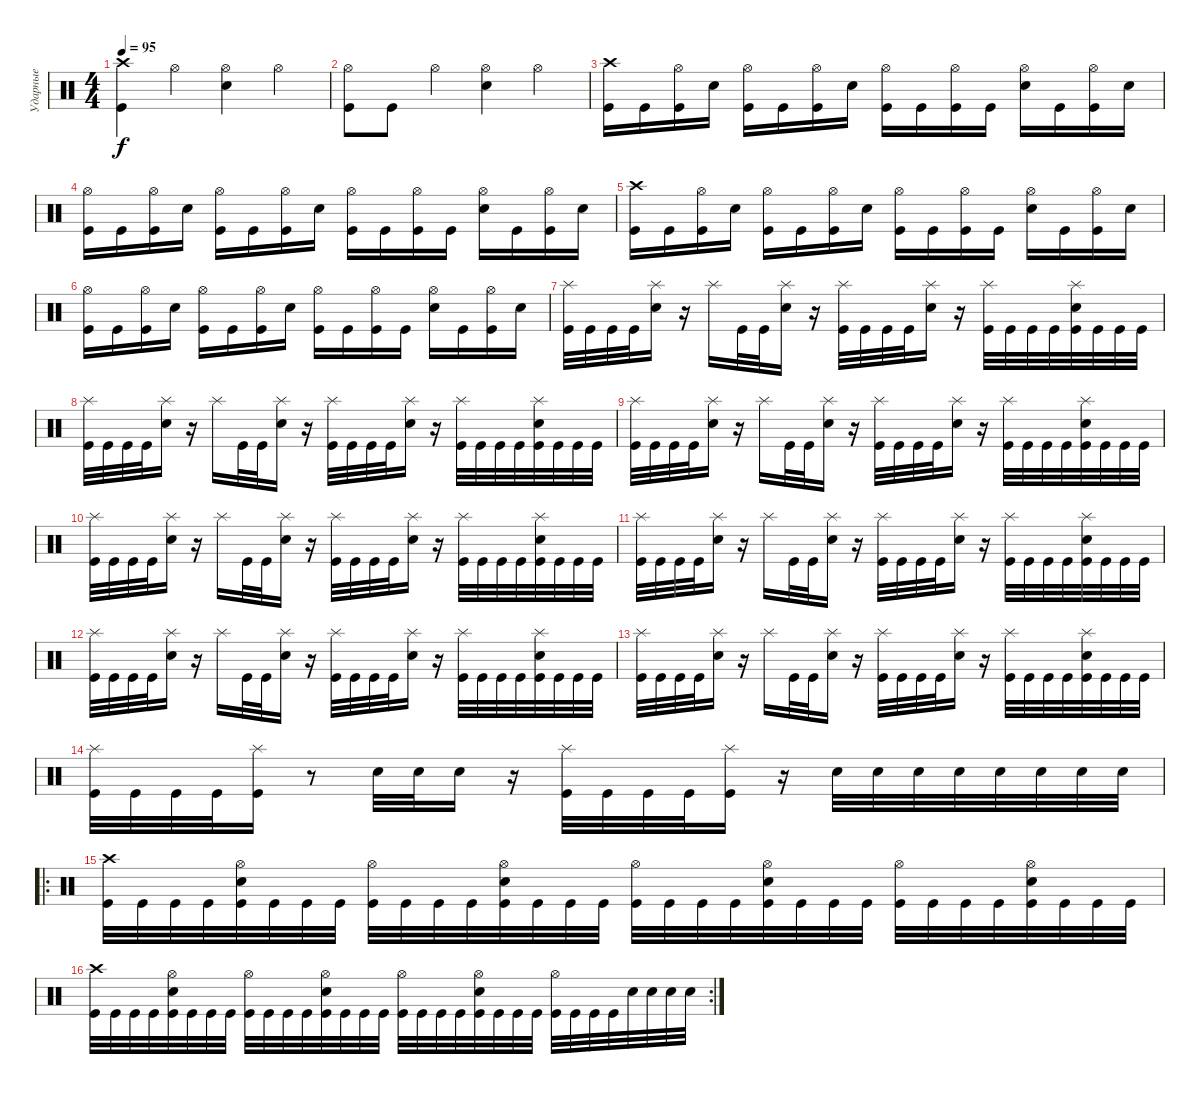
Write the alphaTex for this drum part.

\track ("Ударные" "Ударные") {instrument percussion}
\staff {score}
\articulation defaults
\ts (4 4)
\tempo 95
\clef neutral
\ks c
("Kick (hit)" "Crash high (hit)").4{dy f} "Hi-Hat (open)".4 ("Hi-Hat (open)" "Electric Snare (hit)").4 "Hi-Hat (open)".4 |
("Hi-Hat (open)" "Kick (hit)").8 "Kick (hit)".8 "Hi-Hat (open)".4 ("Hi-Hat (open)" "Electric Snare (hit)").4 "Hi-Hat (open)".4 |
("Kick (hit)" "Crash high (hit)").16 "Kick (hit)".16 ("Kick (hit)" "Hi-Hat (open)").16 "Electric Snare (hit)".16 ("Kick (hit)" "Hi-Hat (open)").16 "Kick (hit)".16 ("Kick (hit)" "Hi-Hat (open)").16 "Electric Snare (hit)".16 ("Kick (hit)" "Hi-Hat (open)").16 "Kick (hit)".16 ("Kick (hit)" "Hi-Hat (open)").16 "Kick (hit)".16 ("Electric Snare (hit)" "Hi-Hat (open)").16 "Kick (hit)".16 ("Kick (hit)" "Hi-Hat (open)").16 "Electric Snare (hit)".16 |
("Kick (hit)" "Hi-Hat (open)").16 "Kick (hit)".16 ("Kick (hit)" "Hi-Hat (open)").16 "Electric Snare (hit)".16 ("Kick (hit)" "Hi-Hat (open)").16 "Kick (hit)".16 ("Kick (hit)" "Hi-Hat (open)").16 "Electric Snare (hit)".16 ("Kick (hit)" "Hi-Hat (open)").16 "Kick (hit)".16 ("Kick (hit)" "Hi-Hat (open)").16 "Kick (hit)".16 ("Electric Snare (hit)" "Hi-Hat (open)").16 "Kick (hit)".16 ("Kick (hit)" "Hi-Hat (open)").16 "Electric Snare (hit)".16 |
("Kick (hit)" "Crash high (hit)").16 "Kick (hit)".16 ("Kick (hit)" "Hi-Hat (open)").16 "Electric Snare (hit)".16 ("Kick (hit)" "Hi-Hat (open)").16 "Kick (hit)".16 ("Kick (hit)" "Hi-Hat (open)").16 "Electric Snare (hit)".16 ("Kick (hit)" "Hi-Hat (open)").16 "Kick (hit)".16 ("Kick (hit)" "Hi-Hat (open)").16 "Kick (hit)".16 ("Electric Snare (hit)" "Hi-Hat (open)").16 "Kick (hit)".16 ("Kick (hit)" "Hi-Hat (open)").16 "Electric Snare (hit)".16 |
("Kick (hit)" "Hi-Hat (open)").16 "Kick (hit)".16 ("Kick (hit)" "Hi-Hat (open)").16 "Electric Snare (hit)".16 ("Kick (hit)" "Hi-Hat (open)").16 "Kick (hit)".16 ("Kick (hit)" "Hi-Hat (open)").16 "Electric Snare (hit)".16 ("Kick (hit)" "Hi-Hat (open)").16 "Kick (hit)".16 ("Kick (hit)" "Hi-Hat (open)").16 "Kick (hit)".16 ("Electric Snare (hit)" "Hi-Hat (open)").16 "Kick (hit)".16 ("Kick (hit)" "Hi-Hat (open)").16 "Electric Snare (hit)".16 |
("Kick (hit)" "Splash (hit)").32 "Kick (hit)".32 "Kick (hit)".32 "Kick (hit)".32 ("Electric Snare (hit)" "Splash (hit)").16 r.16 "Splash (hit)".16 "Kick (hit)".32 "Kick (hit)".32 ("Electric Snare (hit)" "Splash (hit)").16 r.16 ("Kick (hit)" "Splash (hit)").32 "Kick (hit)".32 "Kick (hit)".32 "Kick (hit)".32 ("Electric Snare (hit)" "Splash (hit)").16 r.16 ("Kick (hit)" "Splash (hit)").32 "Kick (hit)".32 "Kick (hit)".32 "Kick (hit)".32 ("Kick (hit)" "Electric Snare (hit)" "Splash (hit)").32 "Kick (hit)".32 "Kick (hit)".32 "Kick (hit)".32 |
("Kick (hit)" "Splash (hit)").32 "Kick (hit)".32 "Kick (hit)".32 "Kick (hit)".32 ("Electric Snare (hit)" "Splash (hit)").16 r.16 "Splash (hit)".16 "Kick (hit)".32 "Kick (hit)".32 ("Electric Snare (hit)" "Splash (hit)").16 r.16 ("Kick (hit)" "Splash (hit)").32 "Kick (hit)".32 "Kick (hit)".32 "Kick (hit)".32 ("Electric Snare (hit)" "Splash (hit)").16 r.16 ("Kick (hit)" "Splash (hit)").32 "Kick (hit)".32 "Kick (hit)".32 "Kick (hit)".32 ("Kick (hit)" "Electric Snare (hit)" "Splash (hit)").32 "Kick (hit)".32 "Kick (hit)".32 "Kick (hit)".32 |
("Kick (hit)" "Splash (hit)").32 "Kick (hit)".32 "Kick (hit)".32 "Kick (hit)".32 ("Electric Snare (hit)" "Splash (hit)").16 r.16 "Splash (hit)".16 "Kick (hit)".32 "Kick (hit)".32 ("Electric Snare (hit)" "Splash (hit)").16 r.16 ("Kick (hit)" "Splash (hit)").32 "Kick (hit)".32 "Kick (hit)".32 "Kick (hit)".32 ("Electric Snare (hit)" "Splash (hit)").16 r.16 ("Kick (hit)" "Splash (hit)").32 "Kick (hit)".32 "Kick (hit)".32 "Kick (hit)".32 ("Kick (hit)" "Electric Snare (hit)" "Splash (hit)").32 "Kick (hit)".32 "Kick (hit)".32 "Kick (hit)".32 |
("Kick (hit)" "Splash (hit)").32 "Kick (hit)".32 "Kick (hit)".32 "Kick (hit)".32 ("Electric Snare (hit)" "Splash (hit)").16 r.16 "Splash (hit)".16 "Kick (hit)".32 "Kick (hit)".32 ("Electric Snare (hit)" "Splash (hit)").16 r.16 ("Kick (hit)" "Splash (hit)").32 "Kick (hit)".32 "Kick (hit)".32 "Kick (hit)".32 ("Electric Snare (hit)" "Splash (hit)").16 r.16 ("Kick (hit)" "Splash (hit)").32 "Kick (hit)".32 "Kick (hit)".32 "Kick (hit)".32 ("Kick (hit)" "Electric Snare (hit)" "Splash (hit)").32 "Kick (hit)".32 "Kick (hit)".32 "Kick (hit)".32 |
("Kick (hit)" "Splash (hit)").32 "Kick (hit)".32 "Kick (hit)".32 "Kick (hit)".32 ("Electric Snare (hit)" "Splash (hit)").16 r.16 "Splash (hit)".16 "Kick (hit)".32 "Kick (hit)".32 ("Electric Snare (hit)" "Splash (hit)").16 r.16 ("Kick (hit)" "Splash (hit)").32 "Kick (hit)".32 "Kick (hit)".32 "Kick (hit)".32 ("Electric Snare (hit)" "Splash (hit)").16 r.16 ("Kick (hit)" "Splash (hit)").32 "Kick (hit)".32 "Kick (hit)".32 "Kick (hit)".32 ("Kick (hit)" "Electric Snare (hit)" "Splash (hit)").32 "Kick (hit)".32 "Kick (hit)".32 "Kick (hit)".32 |
("Kick (hit)" "Splash (hit)").32 "Kick (hit)".32 "Kick (hit)".32 "Kick (hit)".32 ("Electric Snare (hit)" "Splash (hit)").16 r.16 "Splash (hit)".16 "Kick (hit)".32 "Kick (hit)".32 ("Electric Snare (hit)" "Splash (hit)").16 r.16 ("Kick (hit)" "Splash (hit)").32 "Kick (hit)".32 "Kick (hit)".32 "Kick (hit)".32 ("Electric Snare (hit)" "Splash (hit)").16 r.16 ("Kick (hit)" "Splash (hit)").32 "Kick (hit)".32 "Kick (hit)".32 "Kick (hit)".32 ("Kick (hit)" "Electric Snare (hit)" "Splash (hit)").32 "Kick (hit)".32 "Kick (hit)".32 "Kick (hit)".32 |
("Kick (hit)" "Splash (hit)").32 "Kick (hit)".32 "Kick (hit)".32 "Kick (hit)".32 ("Electric Snare (hit)" "Splash (hit)").16 r.16 "Splash (hit)".16 "Kick (hit)".32 "Kick (hit)".32 ("Electric Snare (hit)" "Splash (hit)").16 r.16 ("Kick (hit)" "Splash (hit)").32 "Kick (hit)".32 "Kick (hit)".32 "Kick (hit)".32 ("Electric Snare (hit)" "Splash (hit)").16 r.16 ("Kick (hit)" "Splash (hit)").32 "Kick (hit)".32 "Kick (hit)".32 "Kick (hit)".32 ("Kick (hit)" "Electric Snare (hit)" "Splash (hit)").32 "Kick (hit)".32 "Kick (hit)".32 "Kick (hit)".32 |
("Kick (hit)" "Splash (hit)").32 "Kick (hit)".32 "Kick (hit)".32 "Kick (hit)".32 ("Kick (hit)" "Splash (hit)").16 r.8 "Electric Snare (hit)".32 "Electric Snare (hit)".32 "Electric Snare (hit)".16 r.16 ("Kick (hit)" "Splash (hit)").32 "Kick (hit)".32 "Kick (hit)".32 "Kick (hit)".32 ("Kick (hit)" "Splash (hit)").16 r.16 "Electric Snare (hit)".32 "Electric Snare (hit)".32 "Electric Snare (hit)".32 "Electric Snare (hit)".32 "Electric Snare (hit)".32 "Electric Snare (hit)".32 "Electric Snare (hit)".32 "Electric Snare (hit)".32 |
\ro
("Crash high (hit)" "Kick (hit)").32 "Kick (hit)".32 "Kick (hit)".32 "Kick (hit)".32 ("Hi-Hat (open)" "Electric Snare (hit)" "Kick (hit)").32 "Kick (hit)".32 "Kick (hit)".32 "Kick (hit)".32 ("Hi-Hat (open)" "Kick (hit)").32 "Kick (hit)".32 "Kick (hit)".32 "Kick (hit)".32 ("Hi-Hat (open)" "Electric Snare (hit)" "Kick (hit)").32 "Kick (hit)".32 "Kick (hit)".32 "Kick (hit)".32 ("Hi-Hat (open)" "Kick (hit)").32 "Kick (hit)".32 "Kick (hit)".32 "Kick (hit)".32 ("Hi-Hat (open)" "Electric Snare (hit)" "Kick (hit)").32 "Kick (hit)".32 "Kick (hit)".32 "Kick (hit)".32 ("Hi-Hat (open)" "Kick (hit)").32 "Kick (hit)".32 "Kick (hit)".32 "Kick (hit)".32 ("Hi-Hat (open)" "Electric Snare (hit)" "Kick (hit)").32 "Kick (hit)".32 "Kick (hit)".32 "Kick (hit)".32 |
\rc 2
("Crash high (hit)" "Kick (hit)").32 "Kick (hit)".32 "Kick (hit)".32 "Kick (hit)".32 ("Hi-Hat (open)" "Electric Snare (hit)" "Kick (hit)").32 "Kick (hit)".32 "Kick (hit)".32 "Kick (hit)".32 ("Hi-Hat (open)" "Kick (hit)").32 "Kick (hit)".32 "Kick (hit)".32 "Kick (hit)".32 ("Hi-Hat (open)" "Electric Snare (hit)" "Kick (hit)").32 "Kick (hit)".32 "Kick (hit)".32 "Kick (hit)".32 ("Hi-Hat (open)" "Kick (hit)").32 "Kick (hit)".32 "Kick (hit)".32 "Kick (hit)".32 ("Hi-Hat (open)" "Electric Snare (hit)" "Kick (hit)").32 "Kick (hit)".32 "Kick (hit)".32 "Kick (hit)".32 ("Hi-Hat (open)" "Kick (hit)").32 "Kick (hit)".32 "Kick (hit)".32 "Kick (hit)".32 "Electric Snare (hit)".32 "Electric Snare (hit)".32 "Electric Snare (hit)".32 "Electric Snare (hit)".32
